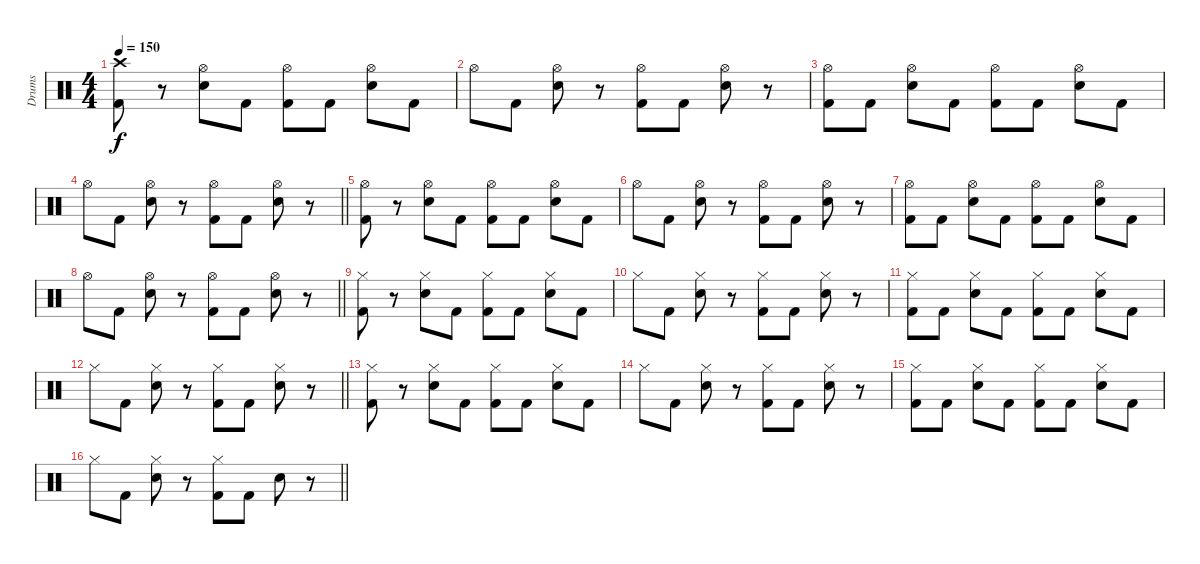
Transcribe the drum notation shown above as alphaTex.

\track ("Drums" "Drums") {instrument percussion}
\staff {score}
\articulation defaults
\ts (4 4)
\tempo 150
\clef neutral
\ks c
("Crash high (hit)" "Kick (hit) 2").8{dy f} r.8 ("Hi-Hat (open)" "Snare (hit) 2").8 "Kick (hit) 2".8 ("Hi-Hat (open)" "Kick (hit) 2").8 "Kick (hit) 2".8 ("Hi-Hat (open)" "Snare (hit) 2").8 "Kick (hit) 2".8 |
"Hi-Hat (open)".8 "Kick (hit) 2".8 ("Hi-Hat (open)" "Snare (hit) 2").8 r.8 ("Hi-Hat (open)" "Kick (hit) 2").8 "Kick (hit) 2".8 ("Hi-Hat (open)" "Snare (hit) 2").8 r.8 |
("Hi-Hat (open)" "Kick (hit) 2").8 "Kick (hit) 2".8 ("Hi-Hat (open)" "Snare (hit) 2").8 "Kick (hit) 2".8 ("Hi-Hat (open)" "Kick (hit) 2").8 "Kick (hit) 2".8 ("Hi-Hat (open)" "Snare (hit) 2").8 "Kick (hit) 2".8 |
\barLineRight lightlight "Hi-Hat (open)".8 "Kick (hit) 2".8
("Hi-Hat (open)" "Snare (hit) 2").8 r.8 ("Hi-Hat (open)" "Kick (hit) 2").8 "Kick (hit) 2".8 ("Hi-Hat (open)" "Snare (hit) 2").8 r.8 |
("Hi-Hat (open)" "Kick (hit) 2").8 r.8 ("Hi-Hat (open)" "Snare (hit) 2").8 "Kick (hit) 2".8 ("Hi-Hat (open)" "Kick (hit) 2").8 "Kick (hit) 2".8 ("Hi-Hat (open)" "Snare (hit) 2").8 "Kick (hit) 2".8 |
"Hi-Hat (open)".8 "Kick (hit) 2".8 ("Hi-Hat (open)" "Snare (hit) 2").8 r.8 ("Hi-Hat (open)" "Kick (hit) 2").8 "Kick (hit) 2".8 ("Hi-Hat (open)" "Snare (hit) 2").8 r.8 |
("Hi-Hat (open)" "Kick (hit) 2").8 "Kick (hit) 2".8 ("Hi-Hat (open)" "Snare (hit) 2").8 "Kick (hit) 2".8 ("Hi-Hat (open)" "Kick (hit) 2").8 "Kick (hit) 2".8 ("Hi-Hat (open)" "Snare (hit) 2").8 "Kick (hit) 2".8 |
\barLineRight lightlight "Hi-Hat (open)".8 "Kick (hit) 2".8
("Hi-Hat (open)" "Snare (hit) 2").8 r.8 ("Hi-Hat (open)" "Kick (hit) 2").8 "Kick (hit) 2".8 ("Hi-Hat (open)" "Snare (hit) 2").8 r.8 |
("Hi-Hat (closed)" "Kick (hit) 2").8 r.8 ("Hi-Hat (closed)" "Snare (hit) 2").8 "Kick (hit) 2".8 ("Hi-Hat (closed)" "Kick (hit) 2").8 "Kick (hit) 2".8 ("Hi-Hat (closed)" "Snare (hit) 2").8 "Kick (hit) 2".8 |
"Hi-Hat (closed)".8 "Kick (hit) 2".8 ("Hi-Hat (closed)" "Snare (hit) 2").8 r.8 ("Hi-Hat (closed)" "Kick (hit) 2").8 "Kick (hit) 2".8 ("Hi-Hat (closed)" "Snare (hit) 2").8 r.8 |
("Hi-Hat (closed)" "Kick (hit) 2").8 "Kick (hit) 2".8 ("Hi-Hat (closed)" "Snare (hit) 2").8 "Kick (hit) 2".8 ("Hi-Hat (closed)" "Kick (hit) 2").8 "Kick (hit) 2".8 ("Hi-Hat (closed)" "Snare (hit) 2").8 "Kick (hit) 2".8 |
\barLineRight lightlight "Hi-Hat (closed)".8 "Kick (hit) 2".8
("Hi-Hat (closed)" "Snare (hit) 2").8 r.8 ("Hi-Hat (closed)" "Kick (hit) 2").8 "Kick (hit) 2".8 ("Hi-Hat (closed)" "Snare (hit) 2").8 r.8 |
("Hi-Hat (closed)" "Kick (hit) 2").8 r.8 ("Hi-Hat (closed)" "Snare (hit) 2").8 "Kick (hit) 2".8 ("Hi-Hat (closed)" "Kick (hit) 2").8 "Kick (hit) 2".8 ("Hi-Hat (closed)" "Snare (hit) 2").8 "Kick (hit) 2".8 |
"Hi-Hat (closed)".8 "Kick (hit) 2".8 ("Hi-Hat (closed)" "Snare (hit) 2").8 r.8 ("Hi-Hat (closed)" "Kick (hit) 2").8 "Kick (hit) 2".8 ("Hi-Hat (closed)" "Snare (hit) 2").8 r.8 |
("Hi-Hat (closed)" "Kick (hit) 2").8 "Kick (hit) 2".8 ("Hi-Hat (closed)" "Snare (hit) 2").8 "Kick (hit) 2".8 ("Hi-Hat (closed)" "Kick (hit) 2").8 "Kick (hit) 2".8 ("Hi-Hat (closed)" "Snare (hit) 2").8 "Kick (hit) 2".8 |
\barLineRight lightlight "Hi-Hat (closed)".8 "Kick (hit) 2".8
("Hi-Hat (closed)" "Snare (hit) 2").8 r.8 ("Hi-Hat (closed)" "Kick (hit) 2").8 "Kick (hit) 2".8 "Snare (hit) 2".8 r.8
